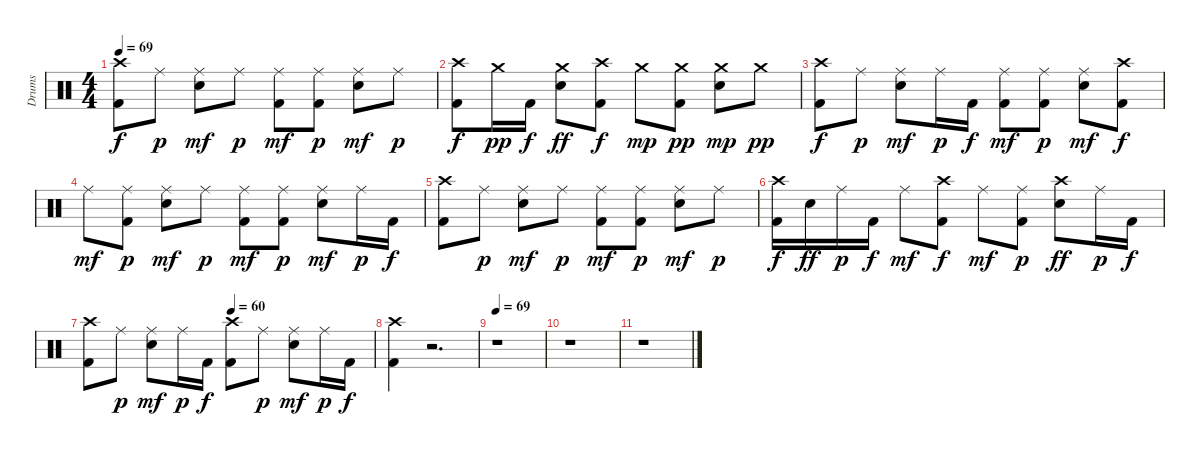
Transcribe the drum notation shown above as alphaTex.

\track ("Drums" "Drums") {instrument percussion}
\staff {score}
\articulation defaults
\ts (4 4)
\tempo 69
\clef neutral
\ks c
("Crash high (hit)" "Kick (hit) 2").8{dy f} "Ride (middle)".8{dy p} ("Snare (hit) 2" "Ride (middle)").8{dy mf} "Ride (middle)".8{dy p} ("Ride (middle)" "Kick (hit) 2").8{dy mf} ("Kick (hit) 2" "Ride (middle)").8{dy p} ("Snare (hit) 2" "Ride (middle)").8{dy mf} "Ride (middle)".8{dy p} |
("Crash high (hit)" "Kick (hit) 2").8{dy f} "Crash medium (hit)".16{dy pp} "Kick (hit) 2".16{dy f} ("Crash medium (hit)" "Snare (hit) 2").8{dy ff} ("Crash high (hit)" "Kick (hit) 2").8{dy f} "Crash medium (hit)".8{dy mp} ("Crash medium (hit)" "Kick (hit) 2").8{dy pp} ("Snare (hit) 2" "Crash medium (hit)").8{dy mp} "Crash medium (hit)".8{dy pp} |
("Crash high (hit)" "Kick (hit) 2").8{dy f} "Ride (middle)".8{dy p} ("Snare (hit) 2" "Ride (middle)").8{dy mf} "Ride (middle)".16{dy p} "Kick (hit) 2".16{dy f} ("Ride (middle)" "Kick (hit) 2").8{dy mf} ("Kick (hit) 2" "Ride (middle)").8{dy p} ("Snare (hit) 2" "Ride (middle)").8{dy mf} ("Kick (hit) 2" "Crash high (hit)").8{dy f} |
"Ride (middle)".8{dy mf} ("Kick (hit) 2" "Ride (middle)").8{dy p} ("Snare (hit) 2" "Ride (middle)").8{dy mf} "Ride (middle)".8{dy p} ("Ride (middle)" "Kick (hit) 2").8{dy mf} ("Kick (hit) 2" "Ride (middle)").8{dy p} ("Snare (hit) 2" "Ride (middle)").8{dy mf} "Ride (middle)".16{dy p} "Kick (hit) 2".16{dy f} |
("Crash high (hit)" "Kick (hit) 2").8 "Ride (middle)".8{dy p} ("Snare (hit) 2" "Ride (middle)").8{dy mf} "Ride (middle)".8{dy p} ("Ride (middle)" "Kick (hit) 2").8{dy mf} ("Kick (hit) 2" "Ride (middle)").8{dy p} ("Snare (hit) 2" "Ride (middle)").8{dy mf} "Ride (middle)".8{dy p} |
("Crash high (hit)" "Kick (hit) 2").16{dy f} "Snare (hit) 2".16{dy ff} "Ride (middle)".16{dy p} "Kick (hit) 2".16{dy f} "Ride (middle)".8{dy mf} ("Crash high (hit)" "Kick (hit) 2").8{dy f} "Ride (middle)".8{dy mf} ("Kick (hit) 2" "Ride (middle)").8{dy p} ("Crash high (hit)" "Snare (hit) 2").8{dy ff} "Ride (middle)".16{dy p} "Kick (hit) 2".16{dy f} |
\tempo (60 0.5)
("Crash high (hit)" "Kick (hit) 2").8 "Ride (middle)".8{dy p} ("Snare (hit) 2" "Ride (middle)").8{dy mf} "Ride (middle)".16{dy p} "Kick (hit) 2".16{dy f} ("Crash high (hit)" "Kick (hit) 2").8 "Ride (middle)".8{dy p} ("Snare (hit) 2" "Ride (middle)").8{dy mf} "Ride (middle)".16{dy p} "Kick (hit) 2".16{dy f} |
("Crash high (hit)" "Kick (hit) 2").4 r.2{d} |
\tempo 69
r.1 |
r.1 |
r.1
